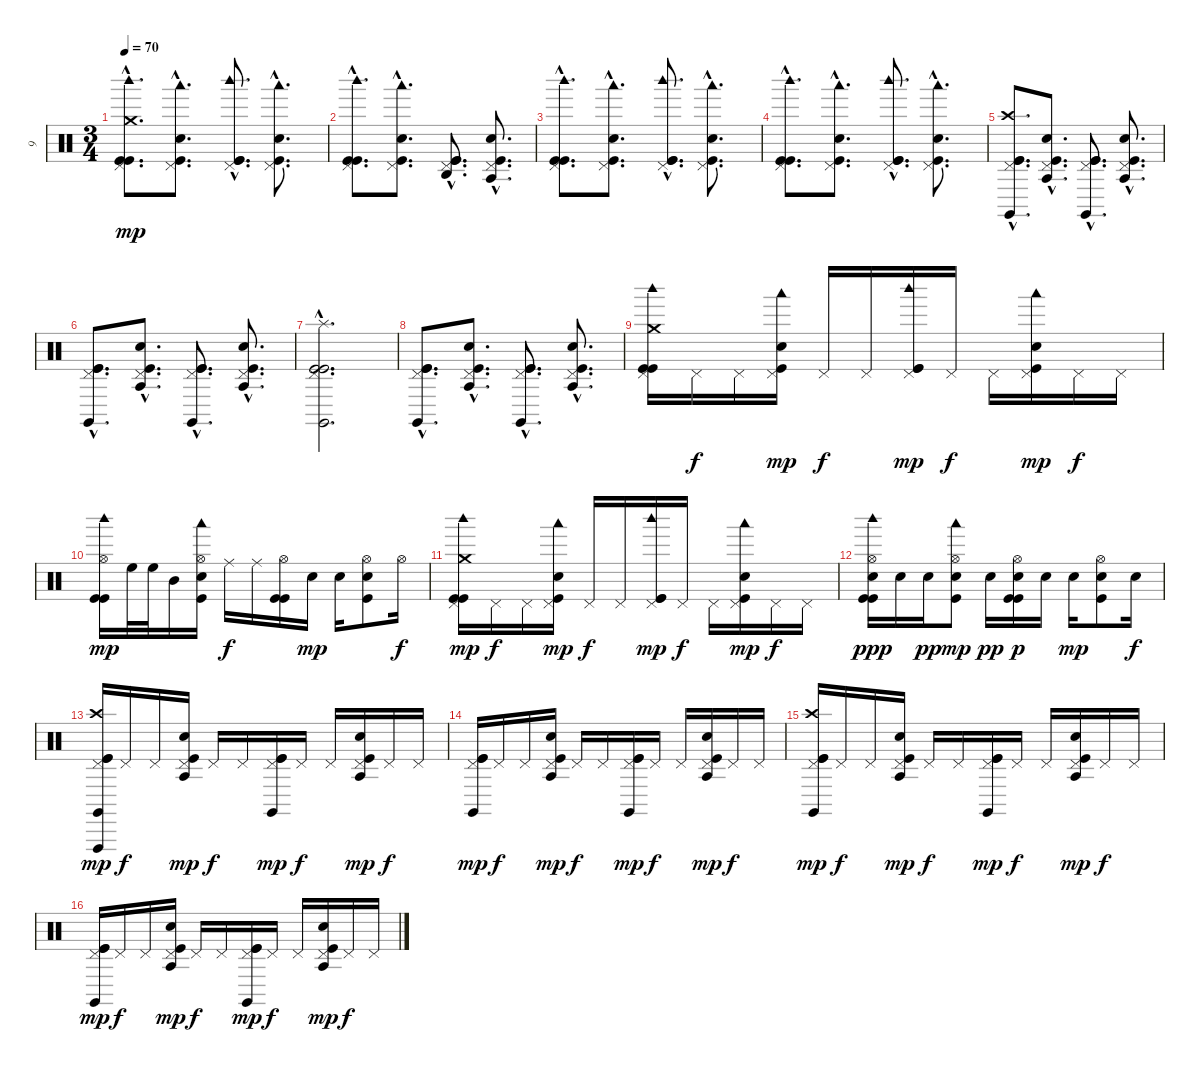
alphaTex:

\track ("9" "9") {instrument percussion}
\staff {score}
\articulation defaults
\ts (3 4)
\tempo 70
\clef neutral
\ks c
("Kick (hit)"{hac} "Kick (hit)"{hac} "Woodblock high (hit)"{hac} "Pedal Hi-Hat (hit)"{hac} "Crash medium (hit)"{hac}).8{d dy mp} ("Kick (hit)"{hac} "Snare (hit) 2"{hac} "Woodblock low (hit)"{hac} "Pedal Hi-Hat (hit)"{hac}).8{d} ("Kick (hit)"{hac} "Kick (hit)"{hac} "Woodblock high (hit)"{hac} "Pedal Hi-Hat (hit)"{hac}).8{d} ("Kick (hit)"{hac} "Snare (hit) 2"{hac} "Woodblock low (hit)"{hac} "Pedal Hi-Hat (hit)"{hac}).8{d} |
("Kick (hit)"{hac} "Kick (hit)"{hac} "Woodblock high (hit)"{hac} "Pedal Hi-Hat (hit)"{hac}).8{d} ("Kick (hit)"{hac} "Snare (hit) 2"{hac} "Woodblock low (hit)"{hac} "Pedal Hi-Hat (hit)"{hac}).8{d} ("Kick (hit)"{hac} "Kick (hit)"{hac} "Agogo high (hit)"{hac} "Pedal Hi-Hat (hit)"{hac}).8{d} ("Kick (hit)"{hac} "Snare (hit) 2"{hac} "Agogo tow (hit)"{hac} "Pedal Hi-Hat (hit)"{hac}).8{d} |
("Kick (hit)"{hac} "Kick (hit)"{hac} "Woodblock high (hit)"{hac} "Pedal Hi-Hat (hit)"{hac}).8{d} ("Kick (hit)"{hac} "Snare (hit) 2"{hac} "Woodblock low (hit)"{hac} "Pedal Hi-Hat (hit)"{hac}).8{d} ("Kick (hit)"{hac} "Kick (hit)"{hac} "Woodblock high (hit)"{hac} "Pedal Hi-Hat (hit)"{hac}).8{d} ("Kick (hit)"{hac} "Snare (hit) 2"{hac} "Woodblock low (hit)"{hac} "Pedal Hi-Hat (hit)"{hac}).8{d} |
("Kick (hit)"{hac} "Kick (hit)"{hac} "Woodblock high (hit)"{hac} "Pedal Hi-Hat (hit)"{hac}).8{d} ("Kick (hit)"{hac} "Snare (hit) 2"{hac} "Woodblock low (hit)"{hac} "Pedal Hi-Hat (hit)"{hac}).8{d} ("Kick (hit)"{hac} "Kick (hit)"{hac} "Woodblock high (hit)"{hac} "Pedal Hi-Hat (hit)"{hac}).8{d} ("Kick (hit)"{hac} "Snare (hit) 2"{hac} "Woodblock low (hit)"{hac} "Pedal Hi-Hat (hit)"{hac}).8{d} |
("Kick (hit)"{hac} "Kick (hit)"{hac} "Claves (hit)"{hac} "Pedal Hi-Hat (hit)"{hac} "Crash high (hit)"{hac}).8{d} ("Kick (hit)"{hac} "Snare (hit) 2"{hac} "Agogo tow (hit)"{hac} "Pedal Hi-Hat (hit)"{hac}).8{d} ("Kick (hit)"{hac} "Kick (hit)"{hac} "Claves (hit)"{hac} "Pedal Hi-Hat (hit)"{hac}).8{d} ("Kick (hit)"{hac} "Snare (hit) 2"{hac} "Agogo tow (hit)"{hac} "Pedal Hi-Hat (hit)"{hac}).8{d} |
("Kick (hit)"{hac} "Kick (hit)"{hac} "Claves (hit)"{hac} "Pedal Hi-Hat (hit)"{hac}).8{d} ("Kick (hit)"{hac} "Snare (hit) 2"{hac} "Agogo tow (hit)"{hac} "Pedal Hi-Hat (hit)"{hac}).8{d} ("Kick (hit)"{hac} "Kick (hit)"{hac} "Claves (hit)"{hac} "Pedal Hi-Hat (hit)"{hac}).8{d} ("Kick (hit)"{hac} "Snare (hit) 2"{hac} "Agogo tow (hit)"{hac} "Pedal Hi-Hat (hit)"{hac}).8{d} |
("Kick (hit)"{hac} "Kick (hit)"{hac} "Claves (hit)"{hac} "Pedal Hi-Hat (hit)"{hac} "Splash (hit)"{hac}).2{d} |
("Kick (hit)"{hac} "Kick (hit)"{hac} "Claves (hit)"{hac} "Pedal Hi-Hat (hit)"{hac}).8{d} ("Kick (hit)"{hac} "Snare (hit) 2"{hac} "Agogo tow (hit)"{hac} "Pedal Hi-Hat (hit)"{hac}).8{d} ("Kick (hit)"{hac} "Kick (hit)"{hac} "Claves (hit)"{hac} "Pedal Hi-Hat (hit)"{hac}).8{d} ("Kick (hit)"{hac} "Snare (hit) 2"{hac} "Agogo tow (hit)"{hac} "Pedal Hi-Hat (hit)"{hac}).8{d} |
("Kick (hit)" "Kick (hit)" "Woodblock high (hit)" "Pedal Hi-Hat (hit)" "Crash medium (hit)").16 "Pedal Hi-Hat (hit)".16{dy f} "Pedal Hi-Hat (hit)".16 ("Kick (hit)" "Snare (hit) 2" "Woodblock low (hit)" "Pedal Hi-Hat (hit)").16{dy mp} "Pedal Hi-Hat (hit)".16{dy f} "Pedal Hi-Hat (hit)".16 ("Kick (hit)" "Kick (hit)" "Woodblock high (hit)" "Pedal Hi-Hat (hit)").16{dy mp} "Pedal Hi-Hat (hit)".16{dy f} "Pedal Hi-Hat (hit)".16 ("Kick (hit)" "Snare (hit) 2" "Woodblock low (hit)" "Pedal Hi-Hat (hit)").16{dy mp} "Pedal Hi-Hat (hit)".16{dy f} "Pedal Hi-Hat (hit)".16 |
("Kick (hit)" "Kick (hit)" "Woodblock high (hit)" "Hi-Hat (open)").16{dy mp} "High Floor Tom (hit)".32 "High Floor Tom (hit)".32 "Mid Tom (hit)".16 ("Kick (hit)" "Snare (hit) 2" "Woodblock low (hit)" "Hi-Hat (open)").16 "Ride (middle)".16{dy f} "Ride (middle)".16 ("Kick (hit)" "Kick (hit)" "Hi-Hat (open)").16 "Snare (hit) 2".16{dy mp} "Snare (hit) 2".16 ("Kick (hit)" "Snare (hit) 2" "Hi-Hat (open)").8 "Hi-Hat (open)".16{dy f} |
("Kick (hit)" "Kick (hit)" "Woodblock high (hit)" "Pedal Hi-Hat (hit)" "Crash medium (hit)").16{dy mp} "Pedal Hi-Hat (hit)".16{dy f} "Pedal Hi-Hat (hit)".16 ("Kick (hit)" "Snare (hit) 2" "Woodblock low (hit)" "Pedal Hi-Hat (hit)").16{dy mp} "Pedal Hi-Hat (hit)".16{dy f} "Pedal Hi-Hat (hit)".16 ("Kick (hit)" "Kick (hit)" "Woodblock high (hit)" "Pedal Hi-Hat (hit)").16{dy mp} "Pedal Hi-Hat (hit)".16{dy f} "Pedal Hi-Hat (hit)".16 ("Kick (hit)" "Snare (hit) 2" "Woodblock low (hit)" "Pedal Hi-Hat (hit)").16{dy mp} "Pedal Hi-Hat (hit)".16{dy f} "Pedal Hi-Hat (hit)".16 |
("Kick (hit)" "Kick (hit)" "Woodblock high (hit)" "Hi-Hat (open)" "Snare (hit) 2").16{dy ppp} "Snare (hit) 2".16 "Snare (hit) 2".16{dy pp} ("Kick (hit)" "Snare (hit) 2" "Woodblock low (hit)" "Hi-Hat (open)").8{dy mp} "Snare (hit) 2".16{dy pp} ("Kick (hit)" "Kick (hit)" "Hi-Hat (open)" "Snare (hit) 2").16{dy p} "Snare (hit) 2".16 "Snare (hit) 2".16{dy mp} ("Kick (hit)" "Snare (hit) 2" "Hi-Hat (open)").8 "Snare (hit) 2".16{dy f} |
("Kick (hit)" "Kick (hit)" "Claves (hit)" "Vibraslap (hit)" "Pedal Hi-Hat (hit)" "Crash high (hit)").16{dy mp} "Pedal Hi-Hat (hit)".16{dy f} "Pedal Hi-Hat (hit)".16 ("Kick (hit)" "Snare (hit) 2" "Agogo tow (hit)" "Pedal Hi-Hat (hit)").16{dy mp} "Pedal Hi-Hat (hit)".16{dy f} "Pedal Hi-Hat (hit)".16 ("Kick (hit)" "Kick (hit)" "Claves (hit)" "Pedal Hi-Hat (hit)").16{dy mp} "Pedal Hi-Hat (hit)".16{dy f} "Pedal Hi-Hat (hit)".16 ("Kick (hit)" "Snare (hit) 2" "Agogo tow (hit)" "Pedal Hi-Hat (hit)").16{dy mp} "Pedal Hi-Hat (hit)".16{dy f} "Pedal Hi-Hat (hit)".16 |
("Kick (hit)" "Kick (hit)" "Claves (hit)" "Pedal Hi-Hat (hit)").16{dy mp} "Pedal Hi-Hat (hit)".16{dy f} "Pedal Hi-Hat (hit)".16 ("Kick (hit)" "Snare (hit) 2" "Agogo tow (hit)" "Pedal Hi-Hat (hit)").16{dy mp} "Pedal Hi-Hat (hit)".16{dy f} "Pedal Hi-Hat (hit)".16 ("Kick (hit)" "Kick (hit)" "Claves (hit)" "Pedal Hi-Hat (hit)").16{dy mp} "Pedal Hi-Hat (hit)".16{dy f} "Pedal Hi-Hat (hit)".16 ("Kick (hit)" "Snare (hit) 2" "Agogo tow (hit)" "Pedal Hi-Hat (hit)").16{dy mp} "Pedal Hi-Hat (hit)".16{dy f} "Pedal Hi-Hat (hit)".16 |
("Kick (hit)" "Kick (hit)" "Claves (hit)" "Pedal Hi-Hat (hit)" "Crash high (hit)").16{dy mp} "Pedal Hi-Hat (hit)".16{dy f} "Pedal Hi-Hat (hit)".16 ("Kick (hit)" "Snare (hit) 2" "Agogo tow (hit)" "Pedal Hi-Hat (hit)").16{dy mp} "Pedal Hi-Hat (hit)".16{dy f} "Pedal Hi-Hat (hit)".16 ("Kick (hit)" "Kick (hit)" "Claves (hit)" "Pedal Hi-Hat (hit)").16{dy mp} "Pedal Hi-Hat (hit)".16{dy f} "Pedal Hi-Hat (hit)".16 ("Kick (hit)" "Snare (hit) 2" "Agogo tow (hit)" "Pedal Hi-Hat (hit)").16{dy mp} "Pedal Hi-Hat (hit)".16{dy f} "Pedal Hi-Hat (hit)".16 |
("Kick (hit)" "Kick (hit)" "Claves (hit)" "Pedal Hi-Hat (hit)").16{dy mp} "Pedal Hi-Hat (hit)".16{dy f} "Pedal Hi-Hat (hit)".16 ("Kick (hit)" "Snare (hit) 2" "Agogo tow (hit)" "Pedal Hi-Hat (hit)").16{dy mp} "Pedal Hi-Hat (hit)".16{dy f} "Pedal Hi-Hat (hit)".16 ("Kick (hit)" "Kick (hit)" "Claves (hit)" "Pedal Hi-Hat (hit)").16{dy mp} "Pedal Hi-Hat (hit)".16{dy f} "Pedal Hi-Hat (hit)".16 ("Kick (hit)" "Snare (hit) 2" "Agogo tow (hit)" "Pedal Hi-Hat (hit)").16{dy mp} "Pedal Hi-Hat (hit)".16{dy f} "Pedal Hi-Hat (hit)".16
